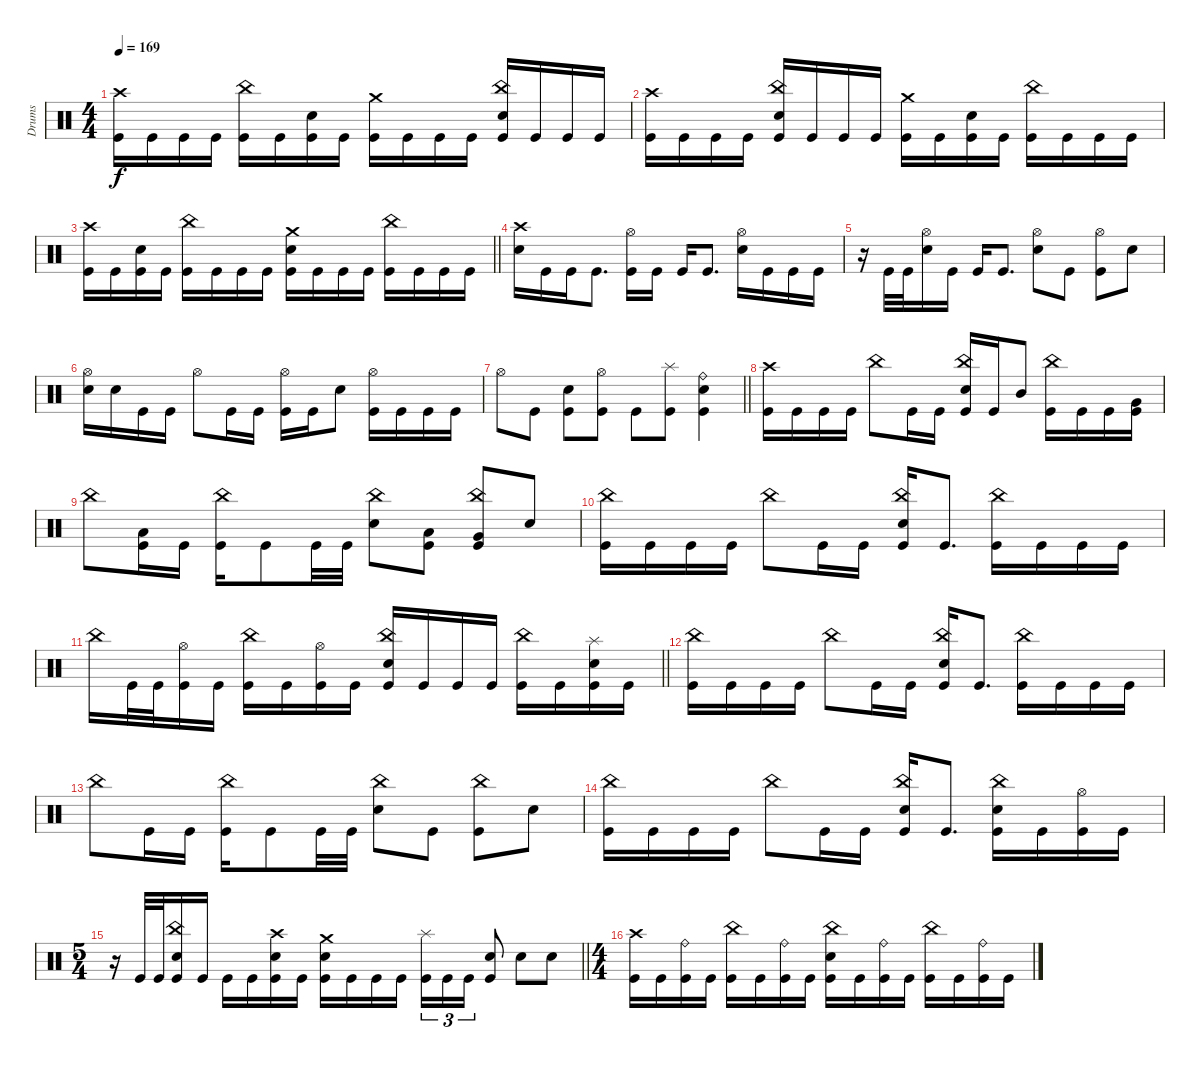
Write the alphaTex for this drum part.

\track ("Drums" "Drums") {instrument percussion}
\staff
\articulation defaults
\ts (4 4)
\tempo 169
\clef neutral
\ks c
("Crash high (hit)" "Kick (hit)").16{dy f} "Kick (hit)".16 "Kick (hit)".16 "Kick (hit)".16 ("China (hit)" "Kick (hit)").16 "Kick (hit)".16 ("Electric Snare (hit)" "Kick (hit)").16 "Kick (hit)".16 ("Crash medium (hit)" "Kick (hit)").16 "Kick (hit)".16 "Kick (hit)".16 "Kick (hit)".16 ("China (hit)" "Electric Snare (hit)" "Kick (hit)").16 "Kick (hit)".16 "Kick (hit)".16 "Kick (hit)".16 |
("Crash high (hit)" "Kick (hit)").16 "Kick (hit)".16 "Kick (hit)".16 "Kick (hit)".16 ("China (hit)" "Electric Snare (hit)" "Kick (hit)").16 "Kick (hit)".16 "Kick (hit)".16 "Kick (hit)".16 ("Crash medium (hit)" "Kick (hit)").16 "Kick (hit)".16 ("Electric Snare (hit)" "Kick (hit)").16 "Kick (hit)".16 ("China (hit)" "Kick (hit)").16 "Kick (hit)".16 "Kick (hit)".16 "Kick (hit)".16 |
\barLineRight lightlight
("Crash high (hit)" "Kick (hit)").16 "Kick (hit)".16 ("Electric Snare (hit)" "Kick (hit)").16 "Kick (hit)".16 ("China (hit)" "Kick (hit)").16 "Kick (hit)".16 "Kick (hit)".16 "Kick (hit)".16 ("Crash medium (hit)" "Electric Snare (hit)" "Kick (hit)").16 "Kick (hit)".16 "Kick (hit)".16 "Kick (hit)".16 ("China (hit)" "Kick (hit)").16 "Kick (hit)".16 "Kick (hit)".16 "Kick (hit)".16 |
\section ("" "")
("Crash high (hit)" "Electric Snare (hit)").16 "Kick (hit)".16 "Kick (hit)".16 "Kick (hit)".8{d} ("Hi-Hat (open)" "Kick (hit)").16 "Kick (hit)".16 "Kick (hit)".16 "Kick (hit)".8{d} ("Hi-Hat (open)" "Electric Snare (hit)").16 "Kick (hit)".16 "Kick (hit)".16 "Kick (hit)".16 |
r.16 "Kick (hit)".32 "Kick (hit)".32 ("Hi-Hat (open)" "Electric Snare (hit)").16 "Kick (hit)".16 "Kick (hit)".16 "Kick (hit)".8{d} ("Hi-Hat (open)" "Electric Snare (hit)").8 "Kick (hit)".8 ("Hi-Hat (open)" "Kick (hit)").8 "Electric Snare (hit)".8 |
("Hi-Hat (open)" "Electric Snare (hit)").16 "Electric Snare (hit)".16 "Kick (hit)".16 "Kick (hit)".16 "Hi-Hat (open)".8 "Kick (hit)".16 "Kick (hit)".16 ("Hi-Hat (open)" "Kick (hit)").16 "Kick (hit)".16 "Electric Snare (hit)".8 ("Hi-Hat (open)" "Kick (hit)").16 "Kick (hit)".16 "Kick (hit)".16 "Kick (hit)".16 |
\barLineRight lightlight "Hi-Hat (open)".8 "Kick (hit)".8
("Electric Snare (hit)" "Kick (hit)").8 ("Hi-Hat (open)" "Kick (hit)").8 "Kick (hit)".8 ("Splash (hit)" "Kick (hit)").8 ("Ride (bell)" "Electric Snare (hit)" "Kick (hit)").4 |
("Crash high (hit)" "Kick (hit)").16 "Kick (hit)".16 "Kick (hit)".16 "Kick (hit)".16 "China (hit)".8 "Kick (hit)".16 "Kick (hit)".16 ("China (hit)" "Electric Snare (hit)" "Kick (hit)").16 "Kick (hit)".16 "Mid Tom (hit)".8 ("China (hit)" "Kick (hit)").16 "Kick (hit)".16 "Kick (hit)".16 ("Very Low Tom (hit)" "Kick (hit)").16 |
"China (hit)".8 ("Low Tom (hit)" "Kick (hit)").16 "Kick (hit)".16 ("China (hit)" "Kick (hit)").16 "Kick (hit)".8 "Kick (hit)".32 "Kick (hit)".32 ("China (hit)" "Electric Snare (hit)").8 ("Low Tom (hit)" "Kick (hit)").8 ("China (hit)" "Very Low Tom (hit)" "Kick (hit)").8 "Electric Snare (hit)".8 |
("China (hit)" "Kick (hit)").16 "Kick (hit)".16 "Kick (hit)".16 "Kick (hit)".16 "China (hit)".8 "Kick (hit)".16 "Kick (hit)".16 ("China (hit)" "Electric Snare (hit)" "Kick (hit)").16 "Kick (hit)".8{d} ("China (hit)" "Kick (hit)").16 "Kick (hit)".16 "Kick (hit)".16 "Kick (hit)".16 |
\barLineRight lightlight "China (hit)".16 "Kick (hit)".32 "Kick (hit)".32
("Hi-Hat (open)" "Kick (hit)").16 "Kick (hit)".16 ("China (hit)" "Kick (hit)").16 "Kick (hit)".16 ("Hi-Hat (open)" "Kick (hit)").16 "Kick (hit)".16 ("China (hit)" "Electric Snare (hit)" "Kick (hit)").16 "Kick (hit)".16 "Kick (hit)".16 "Kick (hit)".16 ("China (hit)" "Kick (hit)").16 "Kick (hit)".16 ("Splash (hit)" "Electric Snare (hit)" "Kick (hit)").16 "Kick (hit)".16 |
("China (hit)" "Kick (hit)").16 "Kick (hit)".16 "Kick (hit)".16 "Kick (hit)".16 "China (hit)".8 "Kick (hit)".16 "Kick (hit)".16 ("China (hit)" "Electric Snare (hit)" "Kick (hit)").16 "Kick (hit)".8{d} ("China (hit)" "Kick (hit)").16 "Kick (hit)".16 "Kick (hit)".16 "Kick (hit)".16 |
"China (hit)".8 "Kick (hit)".16 "Kick (hit)".16 ("China (hit)" "Kick (hit)").16 "Kick (hit)".8 "Kick (hit)".32 "Kick (hit)".32 ("China (hit)" "Electric Snare (hit)").8 "Kick (hit)".8 ("China (hit)" "Kick (hit)").8 "Electric Snare (hit)".8 |
("China (hit)" "Kick (hit)").16 "Kick (hit)".16 "Kick (hit)".16 "Kick (hit)".16 "China (hit)".8 "Kick (hit)".16 "Kick (hit)".16 ("China (hit)" "Electric Snare (hit)" "Kick (hit)").16 "Kick (hit)".8{d} ("China (hit)" "Electric Snare (hit)" "Kick (hit)").16 "Kick (hit)".16 ("Hi-Hat (open)" "Kick (hit)").16 "Kick (hit)".16 |
\ts (5 4)
\barLineRight lightlight
r.16 "Kick (hit)".32 "Kick (hit)".32 ("China (hit)" "Electric Snare (hit)" "Kick (hit)").16 "Kick (hit)".16 "Kick (hit)".16 "Kick (hit)".16 ("Crash high (hit)" "Electric Snare (hit)" "Kick (hit)").16 "Kick (hit)".16 ("Crash medium (hit)" "Electric Snare (hit)" "Kick (hit)").16 "Kick (hit)".16 "Kick (hit)".16 "Kick (hit)".16 ("Splash (hit)" "Kick (hit)").16{tu (3 2)} "Kick (hit)".16{tu (3 2)} "Kick (hit)".16{tu (3 2)} ("Electric Snare (hit)" "Kick (hit)").8 "Electric Snare (hit)".8 "Electric Snare (hit)".8 |
\ts (4 4)
("Crash high (hit)" "Kick (hit)").16 "Kick (hit)".16 ("Ride (bell)" "Kick (hit)").16 "Kick (hit)".16 ("China (hit)" "Kick (hit)").16 "Kick (hit)".16 ("Ride (bell)" "Kick (hit)").16 "Kick (hit)".16 ("China (hit)" "Electric Snare (hit)" "Kick (hit)").16 "Kick (hit)".16 ("Ride (bell)" "Kick (hit)").16 "Kick (hit)".16 ("China (hit)" "Kick (hit)").16 "Kick (hit)".16 ("Ride (bell)" "Kick (hit)").16 "Kick (hit)".16
